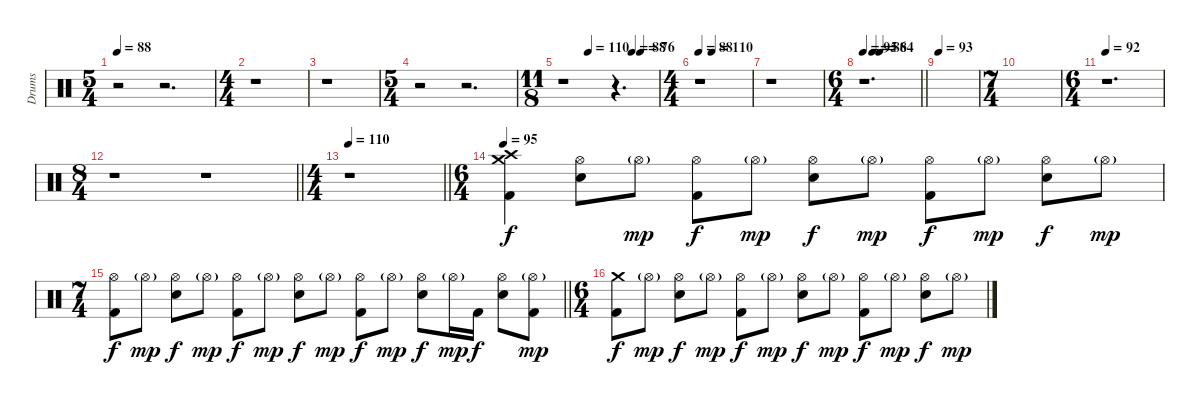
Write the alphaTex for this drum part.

\track ("Drums" "Drums") {instrument percussion}
\staff {score}
\articulation defaults
\ts (5 4)
\tempo 88
\clef neutral
\ks c
r.2{dy f} r.2{d} |
\ts (4 4)
r.1 |
r.1 |
\ts (5 4)
r.2 r.2{d} |
\ts (11 8)
\tempo (110 0.2727272727272727)
\tempo (88 0.7272727272727273)
\tempo (76 0.8181818181818182)
r.1 r.4{d} |
\ts (4 4)
\tempo 88
\tempo (110 0.25)
r.1 |
r.1 |
\ts (6 4)
\tempo 95
\tempo (88 0.16666666666666666)
\tempo (64 0.2916666666666667)
\barLineRight lightlight
r.1{d} |
\tempo 93
|
\ts (7 4)
|
\ts (6 4)
\tempo 92
r.1{d} |
\ts (8 4)
\barLineRight lightlight
r.1 r.1 |
\ts (4 4)
\tempo 110
\barLineRight lightlight
r.1 |
\ts (6 4)
\tempo 95
("Crash high (hit)" "Crash medium (hit)" "Kick (hit) 2").4 ("Hi-Hat (open)" "Electric Snare (hit)").8 "Hi-Hat (open)"{g}.8{dy mp} ("Hi-Hat (open)" "Kick (hit) 2").8{dy f} "Hi-Hat (open)"{g}.8{dy mp} ("Hi-Hat (open)" "Electric Snare (hit)").8{dy f} "Hi-Hat (open)"{g}.8{dy mp} ("Hi-Hat (open)" "Kick (hit) 2").8{dy f} "Hi-Hat (open)"{g}.8{dy mp} ("Hi-Hat (open)" "Electric Snare (hit)").8{dy f} "Hi-Hat (open)"{g}.8{dy mp} |
\ts (7 4)
\barLineRight lightlight
("Hi-Hat (open)" "Kick (hit) 2").8{dy f} "Hi-Hat (open)"{g}.8{dy mp} ("Hi-Hat (open)" "Electric Snare (hit)").8{dy f} "Hi-Hat (open)"{g}.8{dy mp} ("Hi-Hat (open)" "Kick (hit) 2").8{dy f} "Hi-Hat (open)"{g}.8{dy mp} ("Hi-Hat (open)" "Electric Snare (hit)").8{dy f} "Hi-Hat (open)"{g}.8{dy mp} ("Hi-Hat (open)" "Kick (hit) 2").8{dy f} "Hi-Hat (open)"{g}.8{dy mp} ("Hi-Hat (open)" "Electric Snare (hit)").8{dy f} "Hi-Hat (open)"{g}.16{dy mp} "Kick (hit) 2".16{dy f} ("Hi-Hat (open)" "Electric Snare (hit)").8 ("Hi-Hat (open)"{g} "Kick (hit) 2").8{dy mp} |
\ts (6 4)
("Crash medium (hit)" "Kick (hit) 2").8{dy f} "Hi-Hat (open)"{g}.8{dy mp} ("Hi-Hat (open)" "Electric Snare (hit)").8{dy f} "Hi-Hat (open)"{g}.8{dy mp} ("Hi-Hat (open)" "Kick (hit) 2").8{dy f} "Hi-Hat (open)"{g}.8{dy mp} ("Hi-Hat (open)" "Electric Snare (hit)").8{dy f} "Hi-Hat (open)"{g}.8{dy mp} ("Hi-Hat (open)" "Kick (hit) 2").8{dy f} "Hi-Hat (open)"{g}.8{dy mp} ("Hi-Hat (open)" "Electric Snare (hit)").8{dy f} "Hi-Hat (open)"{g}.8{dy mp}
